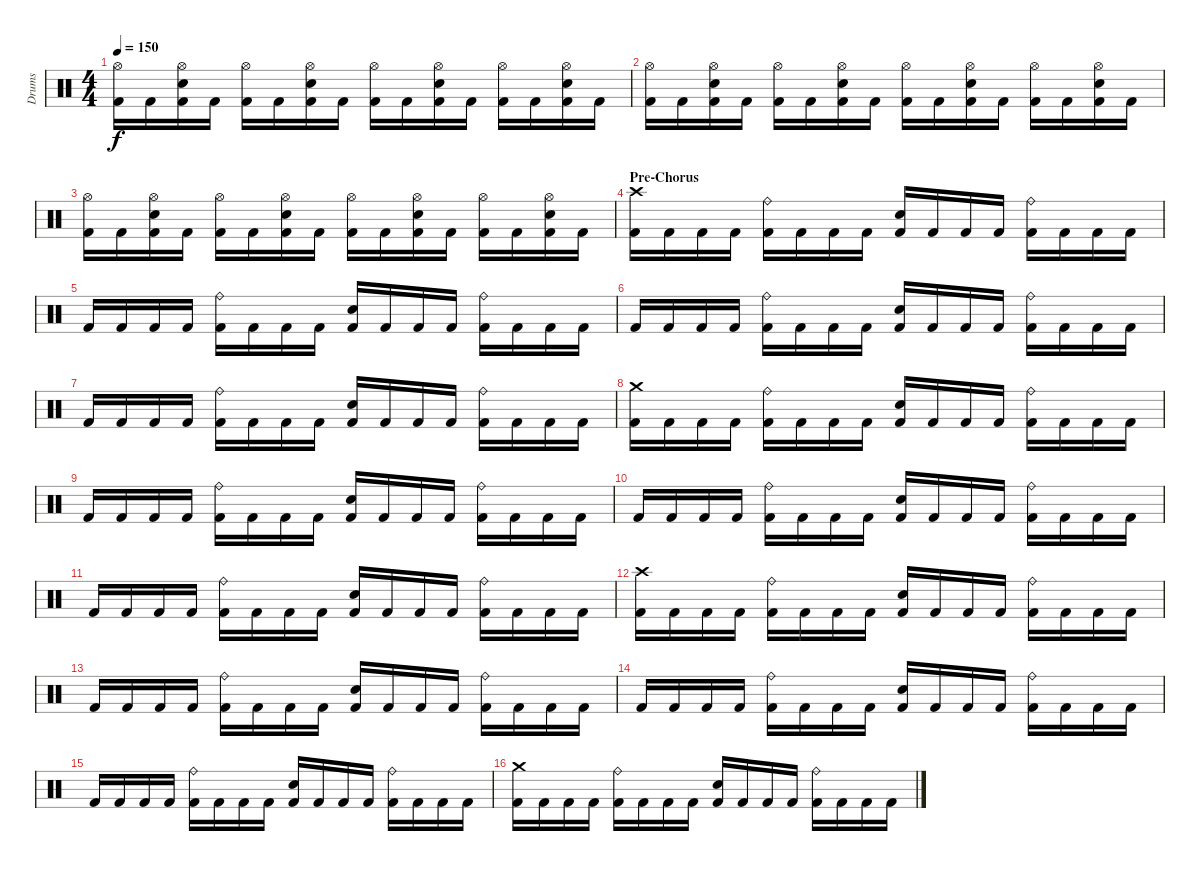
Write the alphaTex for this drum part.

\track ("Drums" "Drums") {instrument percussion}
\staff {score}
\articulation defaults
\ts (4 4)
\tempo 150
\clef neutral
\ks c
("Hi-Hat (open)" "Kick (hit) 2").16{dy f} "Kick (hit) 2".16 ("Hi-Hat (open)" "Snare (hit) 2" "Kick (hit) 2").16 "Kick (hit) 2".16 ("Hi-Hat (open)" "Kick (hit) 2").16 "Kick (hit) 2".16 ("Hi-Hat (open)" "Snare (hit) 2" "Kick (hit) 2").16 "Kick (hit) 2".16 ("Hi-Hat (open)" "Kick (hit) 2").16 "Kick (hit) 2".16 ("Hi-Hat (open)" "Snare (hit) 2" "Kick (hit) 2").16 "Kick (hit) 2".16 ("Hi-Hat (open)" "Kick (hit) 2").16 "Kick (hit) 2".16 ("Hi-Hat (open)" "Snare (hit) 2" "Kick (hit) 2").16 "Kick (hit) 2".16 |
("Hi-Hat (open)" "Kick (hit) 2").16 "Kick (hit) 2".16 ("Hi-Hat (open)" "Snare (hit) 2" "Kick (hit) 2").16 "Kick (hit) 2".16 ("Hi-Hat (open)" "Kick (hit) 2").16 "Kick (hit) 2".16 ("Hi-Hat (open)" "Snare (hit) 2" "Kick (hit) 2").16 "Kick (hit) 2".16 ("Hi-Hat (open)" "Kick (hit) 2").16 "Kick (hit) 2".16 ("Hi-Hat (open)" "Snare (hit) 2" "Kick (hit) 2").16 "Kick (hit) 2".16 ("Hi-Hat (open)" "Kick (hit) 2").16 "Kick (hit) 2".16 ("Hi-Hat (open)" "Snare (hit) 2" "Kick (hit) 2").16 "Kick (hit) 2".16 |
("Hi-Hat (open)" "Kick (hit) 2").16 "Kick (hit) 2".16 ("Hi-Hat (open)" "Snare (hit) 2" "Kick (hit) 2").16 "Kick (hit) 2".16 ("Hi-Hat (open)" "Kick (hit) 2").16 "Kick (hit) 2".16 ("Hi-Hat (open)" "Snare (hit) 2" "Kick (hit) 2").16 "Kick (hit) 2".16 ("Hi-Hat (open)" "Kick (hit) 2").16 "Kick (hit) 2".16 ("Hi-Hat (open)" "Snare (hit) 2" "Kick (hit) 2").16 "Kick (hit) 2".16 ("Hi-Hat (open)" "Kick (hit) 2").16 "Kick (hit) 2".16 ("Hi-Hat (open)" "Snare (hit) 2" "Kick (hit) 2").16 "Kick (hit) 2".16 |
\section ("" "Pre-Chorus")
("Crash high (hit)" "Kick (hit) 2").16 "Kick (hit) 2".16 "Kick (hit) 2".16 "Kick (hit) 2".16 ("Ride (bell)" "Kick (hit) 2").16 "Kick (hit) 2".16 "Kick (hit) 2".16 "Kick (hit) 2".16 ("Snare (hit) 2" "Kick (hit) 2").16 "Kick (hit) 2".16 "Kick (hit) 2".16 "Kick (hit) 2".16 ("Ride (bell)" "Kick (hit) 2").16 "Kick (hit) 2".16 "Kick (hit) 2".16 "Kick (hit) 2".16 |
"Kick (hit) 2".16 "Kick (hit) 2".16 "Kick (hit) 2".16 "Kick (hit) 2".16 ("Ride (bell)" "Kick (hit) 2").16 "Kick (hit) 2".16 "Kick (hit) 2".16 "Kick (hit) 2".16 ("Snare (hit) 2" "Kick (hit) 2").16 "Kick (hit) 2".16 "Kick (hit) 2".16 "Kick (hit) 2".16 ("Ride (bell)" "Kick (hit) 2").16 "Kick (hit) 2".16 "Kick (hit) 2".16 "Kick (hit) 2".16 |
"Kick (hit) 2".16 "Kick (hit) 2".16 "Kick (hit) 2".16 "Kick (hit) 2".16 ("Ride (bell)" "Kick (hit) 2").16 "Kick (hit) 2".16 "Kick (hit) 2".16 "Kick (hit) 2".16 ("Snare (hit) 2" "Kick (hit) 2").16 "Kick (hit) 2".16 "Kick (hit) 2".16 "Kick (hit) 2".16 ("Ride (bell)" "Kick (hit) 2").16 "Kick (hit) 2".16 "Kick (hit) 2".16 "Kick (hit) 2".16 |
"Kick (hit) 2".16 "Kick (hit) 2".16 "Kick (hit) 2".16 "Kick (hit) 2".16 ("Ride (bell)" "Kick (hit) 2").16 "Kick (hit) 2".16 "Kick (hit) 2".16 "Kick (hit) 2".16 ("Snare (hit) 2" "Kick (hit) 2").16 "Kick (hit) 2".16 "Kick (hit) 2".16 "Kick (hit) 2".16 ("Ride (bell)" "Kick (hit) 2").16 "Kick (hit) 2".16 "Kick (hit) 2".16 "Kick (hit) 2".16 |
("Crash medium (hit)" "Kick (hit) 2").16 "Kick (hit) 2".16 "Kick (hit) 2".16 "Kick (hit) 2".16 ("Ride (bell)" "Kick (hit) 2").16 "Kick (hit) 2".16 "Kick (hit) 2".16 "Kick (hit) 2".16 ("Snare (hit) 2" "Kick (hit) 2").16 "Kick (hit) 2".16 "Kick (hit) 2".16 "Kick (hit) 2".16 ("Ride (bell)" "Kick (hit) 2").16 "Kick (hit) 2".16 "Kick (hit) 2".16 "Kick (hit) 2".16 |
"Kick (hit) 2".16 "Kick (hit) 2".16 "Kick (hit) 2".16 "Kick (hit) 2".16 ("Ride (bell)" "Kick (hit) 2").16 "Kick (hit) 2".16 "Kick (hit) 2".16 "Kick (hit) 2".16 ("Snare (hit) 2" "Kick (hit) 2").16 "Kick (hit) 2".16 "Kick (hit) 2".16 "Kick (hit) 2".16 ("Ride (bell)" "Kick (hit) 2").16 "Kick (hit) 2".16 "Kick (hit) 2".16 "Kick (hit) 2".16 |
"Kick (hit) 2".16 "Kick (hit) 2".16 "Kick (hit) 2".16 "Kick (hit) 2".16 ("Ride (bell)" "Kick (hit) 2").16 "Kick (hit) 2".16 "Kick (hit) 2".16 "Kick (hit) 2".16 ("Snare (hit) 2" "Kick (hit) 2").16 "Kick (hit) 2".16 "Kick (hit) 2".16 "Kick (hit) 2".16 ("Ride (bell)" "Kick (hit) 2").16 "Kick (hit) 2".16 "Kick (hit) 2".16 "Kick (hit) 2".16 |
"Kick (hit) 2".16 "Kick (hit) 2".16 "Kick (hit) 2".16 "Kick (hit) 2".16 ("Ride (bell)" "Kick (hit) 2").16 "Kick (hit) 2".16 "Kick (hit) 2".16 "Kick (hit) 2".16 ("Snare (hit) 2" "Kick (hit) 2").16 "Kick (hit) 2".16 "Kick (hit) 2".16 "Kick (hit) 2".16 ("Ride (bell)" "Kick (hit) 2").16 "Kick (hit) 2".16 "Kick (hit) 2".16 "Kick (hit) 2".16 |
("Crash high (hit)" "Kick (hit) 2").16 "Kick (hit) 2".16 "Kick (hit) 2".16 "Kick (hit) 2".16 ("Ride (bell)" "Kick (hit) 2").16 "Kick (hit) 2".16 "Kick (hit) 2".16 "Kick (hit) 2".16 ("Snare (hit) 2" "Kick (hit) 2").16 "Kick (hit) 2".16 "Kick (hit) 2".16 "Kick (hit) 2".16 ("Ride (bell)" "Kick (hit) 2").16 "Kick (hit) 2".16 "Kick (hit) 2".16 "Kick (hit) 2".16 |
"Kick (hit) 2".16 "Kick (hit) 2".16 "Kick (hit) 2".16 "Kick (hit) 2".16 ("Ride (bell)" "Kick (hit) 2").16 "Kick (hit) 2".16 "Kick (hit) 2".16 "Kick (hit) 2".16 ("Snare (hit) 2" "Kick (hit) 2").16 "Kick (hit) 2".16 "Kick (hit) 2".16 "Kick (hit) 2".16 ("Ride (bell)" "Kick (hit) 2").16 "Kick (hit) 2".16 "Kick (hit) 2".16 "Kick (hit) 2".16 |
"Kick (hit) 2".16 "Kick (hit) 2".16 "Kick (hit) 2".16 "Kick (hit) 2".16 ("Ride (bell)" "Kick (hit) 2").16 "Kick (hit) 2".16 "Kick (hit) 2".16 "Kick (hit) 2".16 ("Snare (hit) 2" "Kick (hit) 2").16 "Kick (hit) 2".16 "Kick (hit) 2".16 "Kick (hit) 2".16 ("Ride (bell)" "Kick (hit) 2").16 "Kick (hit) 2".16 "Kick (hit) 2".16 "Kick (hit) 2".16 |
"Kick (hit) 2".16 "Kick (hit) 2".16 "Kick (hit) 2".16 "Kick (hit) 2".16 ("Ride (bell)" "Kick (hit) 2").16 "Kick (hit) 2".16 "Kick (hit) 2".16 "Kick (hit) 2".16 ("Snare (hit) 2" "Kick (hit) 2").16 "Kick (hit) 2".16 "Kick (hit) 2".16 "Kick (hit) 2".16 ("Ride (bell)" "Kick (hit) 2").16 "Kick (hit) 2".16 "Kick (hit) 2".16 "Kick (hit) 2".16 |
("Crash medium (hit)" "Kick (hit) 2").16 "Kick (hit) 2".16 "Kick (hit) 2".16 "Kick (hit) 2".16 ("Ride (bell)" "Kick (hit) 2").16 "Kick (hit) 2".16 "Kick (hit) 2".16 "Kick (hit) 2".16 ("Snare (hit) 2" "Kick (hit) 2").16 "Kick (hit) 2".16 "Kick (hit) 2".16 "Kick (hit) 2".16 ("Ride (bell)" "Kick (hit) 2").16 "Kick (hit) 2".16 "Kick (hit) 2".16 "Kick (hit) 2".16
